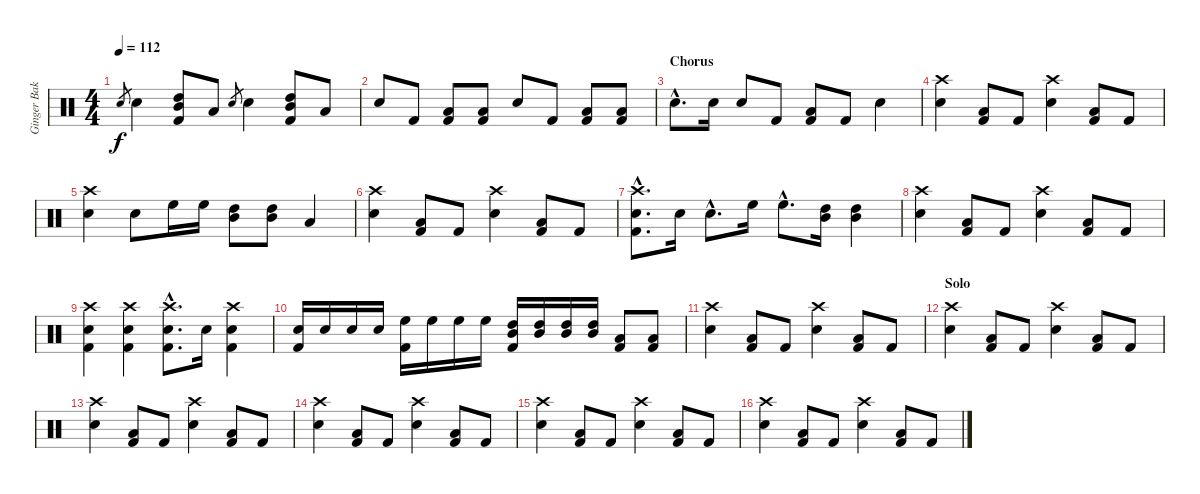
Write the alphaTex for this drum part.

\track ("Ginger Baker" "Ginger Bak") {instrument percussion}
\staff {score}
\articulation defaults
\ts (4 4)
\tempo 112
\clef neutral
\ks c "Snare (hit) 2".8{gr dy f} "Snare (hit) 2".4
("High Tom (hit)" "Mid Tom (hit)" "Kick (hit) 2").8 "Low Tom (hit)".8 "Snare (hit) 2".8{gr} "Snare (hit) 2".4 ("High Tom (hit)" "Mid Tom (hit)" "Kick (hit) 2").8 "Low Tom (hit)".8 |
"Snare (hit) 2".8 "Kick (hit) 2".8 ("Low Tom (hit)" "Kick (hit) 2").8 ("Low Tom (hit)" "Kick (hit) 2").8 "Snare (hit) 2".8 "Kick (hit) 2".8 ("Low Tom (hit)" "Kick (hit) 2").8 ("Low Tom (hit)" "Kick (hit) 2").8 |
\section ("" "Chorus")
"Snare (hit) 2"{hac}.8{d} "Snare (hit) 2".16 "Snare (hit) 2".8 "Kick (hit) 2".8 ("Low Tom (hit)" "Kick (hit) 2").8 "Kick (hit) 2".8 "Snare (hit) 2".4 |
("Crash high (hit)" "Snare (hit) 2").4 ("Low Tom (hit)" "Kick (hit) 2").8 "Kick (hit) 2".8 ("Crash high (hit)" "Snare (hit) 2").4 ("Low Tom (hit)" "Kick (hit) 2").8 "Kick (hit) 2".8 |
("Crash high (hit)" "Snare (hit) 2").4 "Snare (hit) 2".8 "High Floor Tom (hit)".16 "High Floor Tom (hit)".16 ("High Tom (hit)" "Mid Tom (hit)").8 ("High Tom (hit)" "Mid Tom (hit)").8 "Low Tom (hit)".4 |
("Crash high (hit)" "Snare (hit) 2").4 ("Low Tom (hit)" "Kick (hit) 2").8 "Kick (hit) 2".8 ("Crash high (hit)" "Snare (hit) 2").4 ("Low Tom (hit)" "Kick (hit) 2").8 "Kick (hit) 2".8 |
("Crash high (hit)"{hac} "Snare (hit) 2"{hac} "Kick (hit) 2"{hac}).8{d} "Snare (hit) 2".16 "Snare (hit) 2"{hac}.8{d} "High Floor Tom (hit)".16 "High Floor Tom (hit)"{hac}.8{d} ("High Tom (hit)" "Mid Tom (hit)").16 ("High Tom (hit)" "Mid Tom (hit)").4 |
("Crash high (hit)" "Snare (hit) 2").4 ("Low Tom (hit)" "Kick (hit) 2").8 "Kick (hit) 2".8 ("Crash high (hit)" "Snare (hit) 2").4 ("Low Tom (hit)" "Kick (hit) 2").8 "Kick (hit) 2".8 |
("Crash high (hit)" "Snare (hit) 2" "Kick (hit) 2").4 ("Crash high (hit)" "Snare (hit) 2" "Kick (hit) 2").4 ("Crash high (hit)"{hac} "Snare (hit) 2"{hac} "Kick (hit) 2"{hac}).8{d} "Snare (hit) 2".16 ("Crash high (hit)" "Snare (hit) 2" "Kick (hit) 2").4 |
("Snare (hit) 2" "Kick (hit) 2").16 "Snare (hit) 2".16 "Snare (hit) 2".16 "Snare (hit) 2".16 ("High Floor Tom (hit)" "Kick (hit) 2").16 "High Floor Tom (hit)".16 "High Floor Tom (hit)".16 "High Floor Tom (hit)".16 ("High Tom (hit)" "Mid Tom (hit)" "Kick (hit) 2").16 ("High Tom (hit)" "Mid Tom (hit)").16 ("High Tom (hit)" "Mid Tom (hit)").16 ("High Tom (hit)" "Mid Tom (hit)").16 ("Low Tom (hit)" "Kick (hit) 2").8 ("Low Tom (hit)" "Kick (hit) 2").8 |
("Crash high (hit)" "Snare (hit) 2").4 ("Low Tom (hit)" "Kick (hit) 2").8 "Kick (hit) 2".8 ("Crash high (hit)" "Snare (hit) 2").4 ("Low Tom (hit)" "Kick (hit) 2").8 "Kick (hit) 2".8 |
\section ("" "Solo")
("Crash high (hit)" "Snare (hit) 2").4 ("Low Tom (hit)" "Kick (hit) 2").8 "Kick (hit) 2".8 ("Crash high (hit)" "Snare (hit) 2").4 ("Low Tom (hit)" "Kick (hit) 2").8 "Kick (hit) 2".8 |
("Crash high (hit)" "Snare (hit) 2").4 ("Low Tom (hit)" "Kick (hit) 2").8 "Kick (hit) 2".8 ("Crash high (hit)" "Snare (hit) 2").4 ("Low Tom (hit)" "Kick (hit) 2").8 "Kick (hit) 2".8 |
("Crash high (hit)" "Snare (hit) 2").4 ("Low Tom (hit)" "Kick (hit) 2").8 "Kick (hit) 2".8 ("Crash high (hit)" "Snare (hit) 2").4 ("Low Tom (hit)" "Kick (hit) 2").8 "Kick (hit) 2".8 |
("Crash high (hit)" "Snare (hit) 2").4 ("Low Tom (hit)" "Kick (hit) 2").8 "Kick (hit) 2".8 ("Crash high (hit)" "Snare (hit) 2").4 ("Low Tom (hit)" "Kick (hit) 2").8 "Kick (hit) 2".8 |
("Crash high (hit)" "Snare (hit) 2").4 ("Low Tom (hit)" "Kick (hit) 2").8 "Kick (hit) 2".8 ("Crash high (hit)" "Snare (hit) 2").4 ("Low Tom (hit)" "Kick (hit) 2").8 "Kick (hit) 2".8
